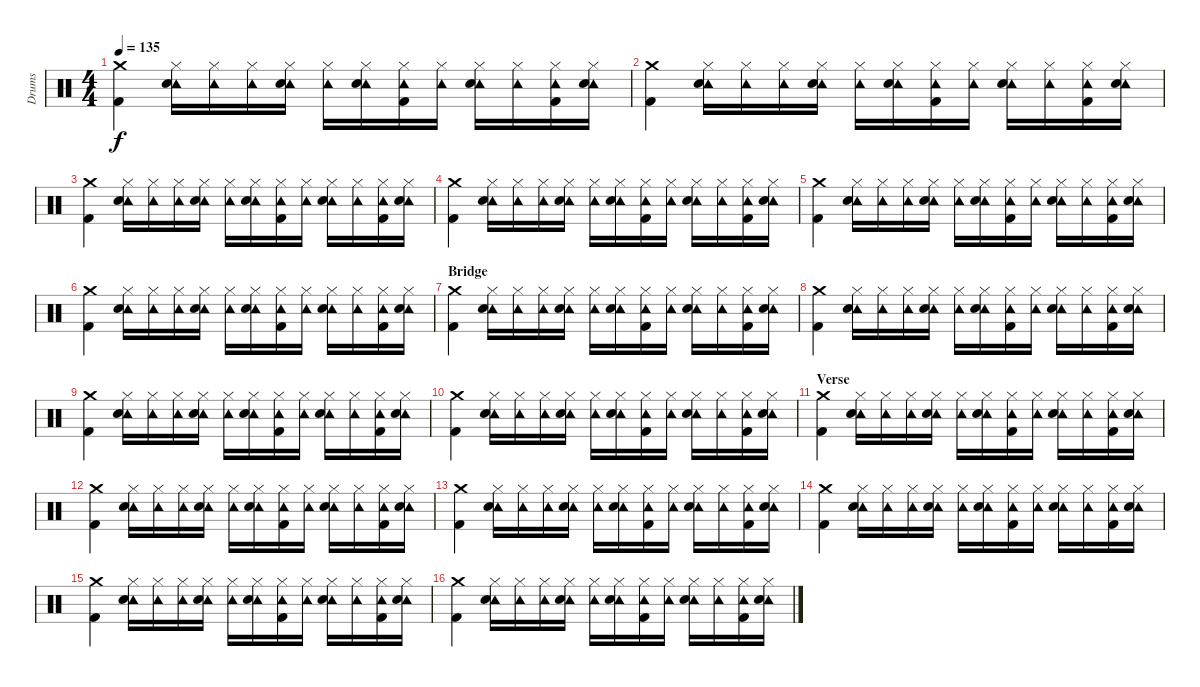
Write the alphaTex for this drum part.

\track ("Drums" "Drums") {instrument percussion}
\staff {score}
\articulation defaults
\ts (4 4)
\tempo 135
\clef neutral
\ks c
("Crash medium (hit)" "Kick (hit) 2").4{dy f} ("Hi-Hat (closed)" "Tambourine (hit)" "Snare (hit) 2").16 ("Hi-Hat (closed)" "Tambourine (hit)").16 ("Hi-Hat (closed)" "Tambourine (hit)").16 ("Hi-Hat (closed)" "Tambourine (hit)" "Snare (hit) 2").16 ("Hi-Hat (closed)" "Tambourine (hit)").16 ("Hi-Hat (closed)" "Tambourine (hit)" "Snare (hit) 2").16 ("Hi-Hat (closed)" "Tambourine (hit)" "Kick (hit) 2").16 ("Hi-Hat (closed)" "Tambourine (hit)").16 ("Hi-Hat (closed)" "Tambourine (hit)" "Snare (hit) 2").16 ("Hi-Hat (closed)" "Tambourine (hit)").16 ("Hi-Hat (closed)" "Tambourine (hit)" "Kick (hit) 2").16 ("Hi-Hat (closed)" "Tambourine (hit)" "Snare (hit) 2").16 |
("Crash medium (hit)" "Kick (hit) 2").4 ("Hi-Hat (closed)" "Tambourine (hit)" "Snare (hit) 2").16 ("Hi-Hat (closed)" "Tambourine (hit)").16 ("Hi-Hat (closed)" "Tambourine (hit)").16 ("Hi-Hat (closed)" "Tambourine (hit)" "Snare (hit) 2").16 ("Hi-Hat (closed)" "Tambourine (hit)").16 ("Hi-Hat (closed)" "Tambourine (hit)" "Snare (hit) 2").16 ("Hi-Hat (closed)" "Tambourine (hit)" "Kick (hit) 2").16 ("Hi-Hat (closed)" "Tambourine (hit)").16 ("Hi-Hat (closed)" "Tambourine (hit)" "Snare (hit) 2").16 ("Hi-Hat (closed)" "Tambourine (hit)").16 ("Hi-Hat (closed)" "Tambourine (hit)" "Kick (hit) 2").16 ("Hi-Hat (closed)" "Tambourine (hit)" "Snare (hit) 2").16 |
("Crash medium (hit)" "Kick (hit) 2").4 ("Hi-Hat (closed)" "Tambourine (hit)" "Snare (hit) 2").16 ("Hi-Hat (closed)" "Tambourine (hit)").16 ("Hi-Hat (closed)" "Tambourine (hit)").16 ("Hi-Hat (closed)" "Tambourine (hit)" "Snare (hit) 2").16 ("Hi-Hat (closed)" "Tambourine (hit)").16 ("Hi-Hat (closed)" "Tambourine (hit)" "Snare (hit) 2").16 ("Hi-Hat (closed)" "Tambourine (hit)" "Kick (hit) 2").16 ("Hi-Hat (closed)" "Tambourine (hit)").16 ("Hi-Hat (closed)" "Tambourine (hit)" "Snare (hit) 2").16 ("Hi-Hat (closed)" "Tambourine (hit)").16 ("Hi-Hat (closed)" "Tambourine (hit)" "Kick (hit) 2").16 ("Hi-Hat (closed)" "Tambourine (hit)" "Snare (hit) 2").16 |
("Crash medium (hit)" "Kick (hit) 2").4 ("Hi-Hat (closed)" "Tambourine (hit)" "Snare (hit) 2").16 ("Hi-Hat (closed)" "Tambourine (hit)").16 ("Hi-Hat (closed)" "Tambourine (hit)").16 ("Hi-Hat (closed)" "Tambourine (hit)" "Snare (hit) 2").16 ("Hi-Hat (closed)" "Tambourine (hit)").16 ("Hi-Hat (closed)" "Tambourine (hit)" "Snare (hit) 2").16 ("Hi-Hat (closed)" "Tambourine (hit)" "Kick (hit) 2").16 ("Hi-Hat (closed)" "Tambourine (hit)").16 ("Hi-Hat (closed)" "Tambourine (hit)" "Snare (hit) 2").16 ("Hi-Hat (closed)" "Tambourine (hit)").16 ("Hi-Hat (closed)" "Tambourine (hit)" "Kick (hit) 2").16 ("Hi-Hat (closed)" "Tambourine (hit)" "Snare (hit) 2").16 |
("Crash medium (hit)" "Kick (hit) 2").4 ("Hi-Hat (closed)" "Tambourine (hit)" "Snare (hit) 2").16 ("Hi-Hat (closed)" "Tambourine (hit)").16 ("Hi-Hat (closed)" "Tambourine (hit)").16 ("Hi-Hat (closed)" "Tambourine (hit)" "Snare (hit) 2").16 ("Hi-Hat (closed)" "Tambourine (hit)").16 ("Hi-Hat (closed)" "Tambourine (hit)" "Snare (hit) 2").16 ("Hi-Hat (closed)" "Tambourine (hit)" "Kick (hit) 2").16 ("Hi-Hat (closed)" "Tambourine (hit)").16 ("Hi-Hat (closed)" "Tambourine (hit)" "Snare (hit) 2").16 ("Hi-Hat (closed)" "Tambourine (hit)").16 ("Hi-Hat (closed)" "Tambourine (hit)" "Kick (hit) 2").16 ("Hi-Hat (closed)" "Tambourine (hit)" "Snare (hit) 2").16 |
("Crash medium (hit)" "Kick (hit) 2").4 ("Hi-Hat (closed)" "Tambourine (hit)" "Snare (hit) 2").16 ("Hi-Hat (closed)" "Tambourine (hit)").16 ("Hi-Hat (closed)" "Tambourine (hit)").16 ("Hi-Hat (closed)" "Tambourine (hit)" "Snare (hit) 2").16 ("Hi-Hat (closed)" "Tambourine (hit)").16 ("Hi-Hat (closed)" "Tambourine (hit)" "Snare (hit) 2").16 ("Hi-Hat (closed)" "Tambourine (hit)" "Kick (hit) 2").16 ("Hi-Hat (closed)" "Tambourine (hit)").16 ("Hi-Hat (closed)" "Tambourine (hit)" "Snare (hit) 2").16 ("Hi-Hat (closed)" "Tambourine (hit)").16 ("Hi-Hat (closed)" "Tambourine (hit)" "Kick (hit) 2").16 ("Hi-Hat (closed)" "Tambourine (hit)" "Snare (hit) 2").16 |
\section ("" "Bridge")
("Crash medium (hit)" "Kick (hit) 2").4 ("Hi-Hat (closed)" "Tambourine (hit)" "Snare (hit) 2").16 ("Hi-Hat (closed)" "Tambourine (hit)").16 ("Hi-Hat (closed)" "Tambourine (hit)").16 ("Hi-Hat (closed)" "Tambourine (hit)" "Snare (hit) 2").16 ("Hi-Hat (closed)" "Tambourine (hit)").16 ("Hi-Hat (closed)" "Tambourine (hit)" "Snare (hit) 2").16 ("Hi-Hat (closed)" "Tambourine (hit)" "Kick (hit) 2").16 ("Hi-Hat (closed)" "Tambourine (hit)").16 ("Hi-Hat (closed)" "Tambourine (hit)" "Snare (hit) 2").16 ("Hi-Hat (closed)" "Tambourine (hit)").16 ("Hi-Hat (closed)" "Tambourine (hit)" "Kick (hit) 2").16 ("Hi-Hat (closed)" "Tambourine (hit)" "Snare (hit) 2").16 |
("Crash medium (hit)" "Kick (hit) 2").4 ("Hi-Hat (closed)" "Tambourine (hit)" "Snare (hit) 2").16 ("Hi-Hat (closed)" "Tambourine (hit)").16 ("Hi-Hat (closed)" "Tambourine (hit)").16 ("Hi-Hat (closed)" "Tambourine (hit)" "Snare (hit) 2").16 ("Hi-Hat (closed)" "Tambourine (hit)").16 ("Hi-Hat (closed)" "Tambourine (hit)" "Snare (hit) 2").16 ("Hi-Hat (closed)" "Tambourine (hit)" "Kick (hit) 2").16 ("Hi-Hat (closed)" "Tambourine (hit)").16 ("Hi-Hat (closed)" "Tambourine (hit)" "Snare (hit) 2").16 ("Hi-Hat (closed)" "Tambourine (hit)").16 ("Hi-Hat (closed)" "Tambourine (hit)" "Kick (hit) 2").16 ("Hi-Hat (closed)" "Tambourine (hit)" "Snare (hit) 2").16 |
("Crash medium (hit)" "Kick (hit) 2").4 ("Hi-Hat (closed)" "Tambourine (hit)" "Snare (hit) 2").16 ("Hi-Hat (closed)" "Tambourine (hit)").16 ("Hi-Hat (closed)" "Tambourine (hit)").16 ("Hi-Hat (closed)" "Tambourine (hit)" "Snare (hit) 2").16 ("Hi-Hat (closed)" "Tambourine (hit)").16 ("Hi-Hat (closed)" "Tambourine (hit)" "Snare (hit) 2").16 ("Hi-Hat (closed)" "Tambourine (hit)" "Kick (hit) 2").16 ("Hi-Hat (closed)" "Tambourine (hit)").16 ("Hi-Hat (closed)" "Tambourine (hit)" "Snare (hit) 2").16 ("Hi-Hat (closed)" "Tambourine (hit)").16 ("Hi-Hat (closed)" "Tambourine (hit)" "Kick (hit) 2").16 ("Hi-Hat (closed)" "Tambourine (hit)" "Snare (hit) 2").16 |
("Crash medium (hit)" "Kick (hit) 2").4 ("Hi-Hat (closed)" "Tambourine (hit)" "Snare (hit) 2").16 ("Hi-Hat (closed)" "Tambourine (hit)").16 ("Hi-Hat (closed)" "Tambourine (hit)").16 ("Hi-Hat (closed)" "Tambourine (hit)" "Snare (hit) 2").16 ("Hi-Hat (closed)" "Tambourine (hit)").16 ("Hi-Hat (closed)" "Tambourine (hit)" "Snare (hit) 2").16 ("Hi-Hat (closed)" "Tambourine (hit)" "Kick (hit) 2").16 ("Hi-Hat (closed)" "Tambourine (hit)").16 ("Hi-Hat (closed)" "Tambourine (hit)" "Snare (hit) 2").16 ("Hi-Hat (closed)" "Tambourine (hit)").16 ("Hi-Hat (closed)" "Tambourine (hit)" "Kick (hit) 2").16 ("Hi-Hat (closed)" "Tambourine (hit)" "Snare (hit) 2").16 |
\section ("" "Verse")
("Crash medium (hit)" "Kick (hit) 2").4 ("Hi-Hat (closed)" "Tambourine (hit)" "Snare (hit) 2").16 ("Hi-Hat (closed)" "Tambourine (hit)").16 ("Hi-Hat (closed)" "Tambourine (hit)").16 ("Hi-Hat (closed)" "Tambourine (hit)" "Snare (hit) 2").16 ("Hi-Hat (closed)" "Tambourine (hit)").16 ("Hi-Hat (closed)" "Tambourine (hit)" "Snare (hit) 2").16 ("Hi-Hat (closed)" "Tambourine (hit)" "Kick (hit) 2").16 ("Hi-Hat (closed)" "Tambourine (hit)").16 ("Hi-Hat (closed)" "Tambourine (hit)" "Snare (hit) 2").16 ("Hi-Hat (closed)" "Tambourine (hit)").16 ("Hi-Hat (closed)" "Tambourine (hit)" "Kick (hit) 2").16 ("Hi-Hat (closed)" "Tambourine (hit)" "Snare (hit) 2").16 |
("Crash medium (hit)" "Kick (hit) 2").4 ("Hi-Hat (closed)" "Tambourine (hit)" "Snare (hit) 2").16 ("Hi-Hat (closed)" "Tambourine (hit)").16 ("Hi-Hat (closed)" "Tambourine (hit)").16 ("Hi-Hat (closed)" "Tambourine (hit)" "Snare (hit) 2").16 ("Hi-Hat (closed)" "Tambourine (hit)").16 ("Hi-Hat (closed)" "Tambourine (hit)" "Snare (hit) 2").16 ("Hi-Hat (closed)" "Tambourine (hit)" "Kick (hit) 2").16 ("Hi-Hat (closed)" "Tambourine (hit)").16 ("Hi-Hat (closed)" "Tambourine (hit)" "Snare (hit) 2").16 ("Hi-Hat (closed)" "Tambourine (hit)").16 ("Hi-Hat (closed)" "Tambourine (hit)" "Kick (hit) 2").16 ("Hi-Hat (closed)" "Tambourine (hit)" "Snare (hit) 2").16 |
("Crash medium (hit)" "Kick (hit) 2").4 ("Hi-Hat (closed)" "Tambourine (hit)" "Snare (hit) 2").16 ("Hi-Hat (closed)" "Tambourine (hit)").16 ("Hi-Hat (closed)" "Tambourine (hit)").16 ("Hi-Hat (closed)" "Tambourine (hit)" "Snare (hit) 2").16 ("Hi-Hat (closed)" "Tambourine (hit)").16 ("Hi-Hat (closed)" "Tambourine (hit)" "Snare (hit) 2").16 ("Hi-Hat (closed)" "Tambourine (hit)" "Kick (hit) 2").16 ("Hi-Hat (closed)" "Tambourine (hit)").16 ("Hi-Hat (closed)" "Tambourine (hit)" "Snare (hit) 2").16 ("Hi-Hat (closed)" "Tambourine (hit)").16 ("Hi-Hat (closed)" "Tambourine (hit)" "Kick (hit) 2").16 ("Hi-Hat (closed)" "Tambourine (hit)" "Snare (hit) 2").16 |
("Crash medium (hit)" "Kick (hit) 2").4 ("Hi-Hat (closed)" "Tambourine (hit)" "Snare (hit) 2").16 ("Hi-Hat (closed)" "Tambourine (hit)").16 ("Hi-Hat (closed)" "Tambourine (hit)").16 ("Hi-Hat (closed)" "Tambourine (hit)" "Snare (hit) 2").16 ("Hi-Hat (closed)" "Tambourine (hit)").16 ("Hi-Hat (closed)" "Tambourine (hit)" "Snare (hit) 2").16 ("Hi-Hat (closed)" "Tambourine (hit)" "Kick (hit) 2").16 ("Hi-Hat (closed)" "Tambourine (hit)").16 ("Hi-Hat (closed)" "Tambourine (hit)" "Snare (hit) 2").16 ("Hi-Hat (closed)" "Tambourine (hit)").16 ("Hi-Hat (closed)" "Tambourine (hit)" "Kick (hit) 2").16 ("Hi-Hat (closed)" "Tambourine (hit)" "Snare (hit) 2").16 |
("Crash medium (hit)" "Kick (hit) 2").4 ("Hi-Hat (closed)" "Tambourine (hit)" "Snare (hit) 2").16 ("Hi-Hat (closed)" "Tambourine (hit)").16 ("Hi-Hat (closed)" "Tambourine (hit)").16 ("Hi-Hat (closed)" "Tambourine (hit)" "Snare (hit) 2").16 ("Hi-Hat (closed)" "Tambourine (hit)").16 ("Hi-Hat (closed)" "Tambourine (hit)" "Snare (hit) 2").16 ("Hi-Hat (closed)" "Tambourine (hit)" "Kick (hit) 2").16 ("Hi-Hat (closed)" "Tambourine (hit)").16 ("Hi-Hat (closed)" "Tambourine (hit)" "Snare (hit) 2").16 ("Hi-Hat (closed)" "Tambourine (hit)").16 ("Hi-Hat (closed)" "Tambourine (hit)" "Kick (hit) 2").16 ("Hi-Hat (closed)" "Tambourine (hit)" "Snare (hit) 2").16 |
("Crash medium (hit)" "Kick (hit) 2").4 ("Hi-Hat (closed)" "Tambourine (hit)" "Snare (hit) 2").16 ("Hi-Hat (closed)" "Tambourine (hit)").16 ("Hi-Hat (closed)" "Tambourine (hit)").16 ("Hi-Hat (closed)" "Tambourine (hit)" "Snare (hit) 2").16 ("Hi-Hat (closed)" "Tambourine (hit)").16 ("Hi-Hat (closed)" "Tambourine (hit)" "Snare (hit) 2").16 ("Hi-Hat (closed)" "Tambourine (hit)" "Kick (hit) 2").16 ("Hi-Hat (closed)" "Tambourine (hit)").16 ("Hi-Hat (closed)" "Tambourine (hit)" "Snare (hit) 2").16 ("Hi-Hat (closed)" "Tambourine (hit)").16 ("Hi-Hat (closed)" "Tambourine (hit)" "Kick (hit) 2").16 ("Hi-Hat (closed)" "Tambourine (hit)" "Snare (hit) 2").16
